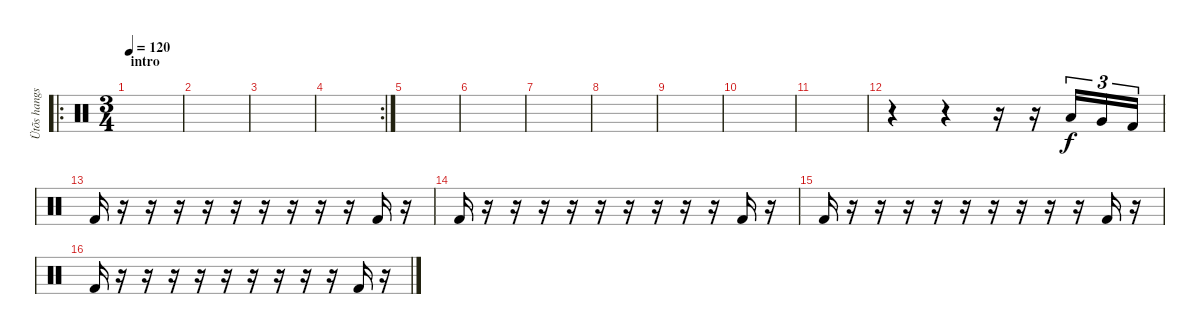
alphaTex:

\track ("Ütõs hangszer" "Ütõs hangs") {instrument percussion}
\staff {score}
\articulation defaults
\ro
\ts (3 4)
\section ("" "intro")
\tempo 120
\clef neutral
\ks c
|
|
|
\rc 2
|
|
|
|
|
|
|
|
r.4 r.4 r.16 r.16 "Low Tom (hit)".16{tu (3 2)} "Very Low Tom (hit)".16{tu (3 2)} "Kick (hit) 2".16{tu (3 2)} |
"Kick (hit) 2".16 r.16 r.16 r.16 r.16 r.16 r.16 r.16 r.16 r.16 "Kick (hit) 2".16 r.16 |
"Kick (hit) 2".16 r.16 r.16 r.16 r.16 r.16 r.16 r.16 r.16 r.16 "Kick (hit) 2".16 r.16 |
"Kick (hit) 2".16 r.16 r.16 r.16 r.16 r.16 r.16 r.16 r.16 r.16 "Kick (hit) 2".16 r.16 |
"Kick (hit) 2".16 r.16 r.16 r.16 r.16 r.16 r.16 r.16 r.16 r.16 "Kick (hit) 2".16 r.16
